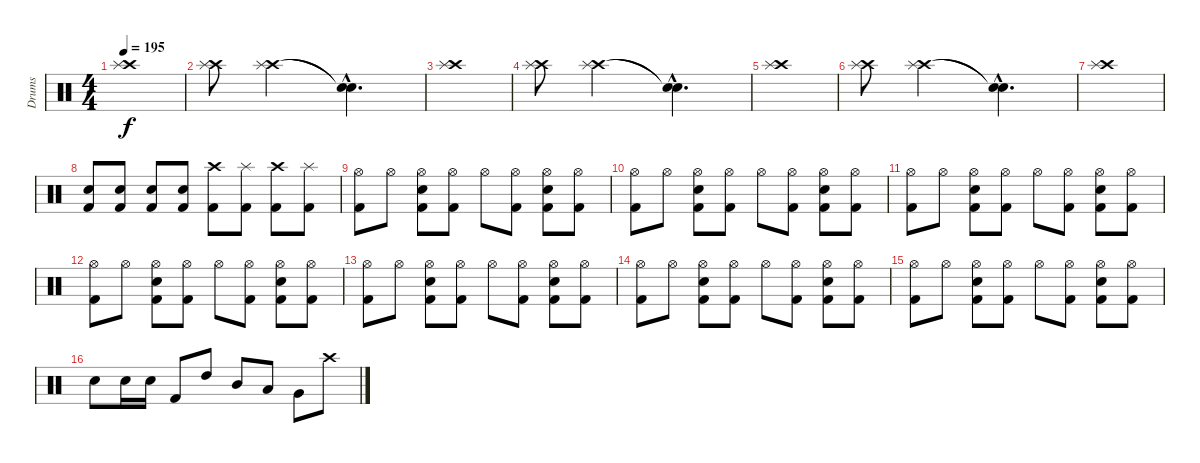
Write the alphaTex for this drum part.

\track ("Drums" "Drums") {instrument percussion}
\staff {score}
\articulation defaults
\ts (4 4)
\tempo 195
\clef neutral
\ks c
("Crash high (hit)" "Splash (hit)").1{dy f} |
("Crash high (hit)" "Splash (hit)").8 ("Crash high (hit)" "Splash (hit)").2 ("Snare (hit)"{hac t} "Snare (hit)"{hac t}).4{d} |
("Crash high (hit)" "Splash (hit)").1 |
("Crash high (hit)" "Splash (hit)").8 ("Crash high (hit)" "Splash (hit)").2 ("Snare (hit)"{hac t} "Snare (hit)"{hac t}).4{d} |
("Crash high (hit)" "Splash (hit)").1 |
("Crash high (hit)" "Splash (hit)").8 ("Crash high (hit)" "Splash (hit)").2 ("Snare (hit)"{hac t} "Snare (hit)"{hac t}).4{d} |
("Crash high (hit)" "Splash (hit)").1 |
("Electric Snare (hit)" "Kick (hit) 2").8 ("Electric Snare (hit)" "Kick (hit) 2").8 ("Electric Snare (hit)" "Kick (hit) 2").8 ("Electric Snare (hit)" "Kick (hit) 2").8 ("Crash high (hit)" "Kick (hit) 2").8 ("Splash (hit)" "Kick (hit) 2").8 ("Crash high (hit)" "Kick (hit) 2").8 ("Splash (hit)" "Kick (hit) 2").8 |
("Hi-Hat (open)" "Kick (hit) 2").8 "Hi-Hat (open)".8 ("Electric Snare (hit)" "Hi-Hat (open)" "Kick (hit) 2").8 ("Hi-Hat (open)" "Kick (hit) 2").8 "Hi-Hat (open)".8 ("Hi-Hat (open)" "Kick (hit) 2").8 ("Electric Snare (hit)" "Hi-Hat (open)" "Kick (hit) 2").8 ("Hi-Hat (open)" "Kick (hit) 2").8 |
("Hi-Hat (open)" "Kick (hit) 2").8 "Hi-Hat (open)".8 ("Electric Snare (hit)" "Hi-Hat (open)" "Kick (hit) 2").8 ("Hi-Hat (open)" "Kick (hit) 2").8 "Hi-Hat (open)".8 ("Hi-Hat (open)" "Kick (hit) 2").8 ("Electric Snare (hit)" "Hi-Hat (open)" "Kick (hit) 2").8 ("Hi-Hat (open)" "Kick (hit) 2").8 |
("Hi-Hat (open)" "Kick (hit) 2").8 "Hi-Hat (open)".8 ("Electric Snare (hit)" "Hi-Hat (open)" "Kick (hit) 2").8 ("Hi-Hat (open)" "Kick (hit) 2").8 "Hi-Hat (open)".8 ("Hi-Hat (open)" "Kick (hit) 2").8 ("Electric Snare (hit)" "Hi-Hat (open)" "Kick (hit) 2").8 ("Hi-Hat (open)" "Kick (hit) 2").8 |
("Hi-Hat (open)" "Kick (hit) 2").8 "Hi-Hat (open)".8 ("Electric Snare (hit)" "Hi-Hat (open)" "Kick (hit) 2").8 ("Hi-Hat (open)" "Kick (hit) 2").8 "Hi-Hat (open)".8 ("Hi-Hat (open)" "Kick (hit) 2").8 ("Electric Snare (hit)" "Hi-Hat (open)" "Kick (hit) 2").8 ("Hi-Hat (open)" "Kick (hit) 2").8 |
("Hi-Hat (open)" "Kick (hit) 2").8 "Hi-Hat (open)".8 ("Electric Snare (hit)" "Hi-Hat (open)" "Kick (hit) 2").8 ("Hi-Hat (open)" "Kick (hit) 2").8 "Hi-Hat (open)".8 ("Hi-Hat (open)" "Kick (hit) 2").8 ("Electric Snare (hit)" "Hi-Hat (open)" "Kick (hit) 2").8 ("Hi-Hat (open)" "Kick (hit) 2").8 |
("Hi-Hat (open)" "Kick (hit) 2").8 "Hi-Hat (open)".8 ("Electric Snare (hit)" "Hi-Hat (open)" "Kick (hit) 2").8 ("Hi-Hat (open)" "Kick (hit) 2").8 "Hi-Hat (open)".8 ("Hi-Hat (open)" "Kick (hit) 2").8 ("Electric Snare (hit)" "Hi-Hat (open)" "Kick (hit) 2").8 ("Hi-Hat (open)" "Kick (hit) 2").8 |
("Hi-Hat (open)" "Kick (hit) 2").8 "Hi-Hat (open)".8 ("Electric Snare (hit)" "Hi-Hat (open)" "Kick (hit) 2").8 ("Hi-Hat (open)" "Kick (hit) 2").8 "Hi-Hat (open)".8 ("Hi-Hat (open)" "Kick (hit) 2").8 ("Electric Snare (hit)" "Hi-Hat (open)" "Kick (hit) 2").8 ("Hi-Hat (open)" "Kick (hit) 2").8 |
"Electric Snare (hit)".8 "Electric Snare (hit)".16 "Electric Snare (hit)".16 "Kick (hit) 2".8 "High Tom (hit)".8 "Mid Tom (hit)".8 "Low Tom (hit)".8 "Very Low Tom (hit)".8 "Crash high (hit)".8
